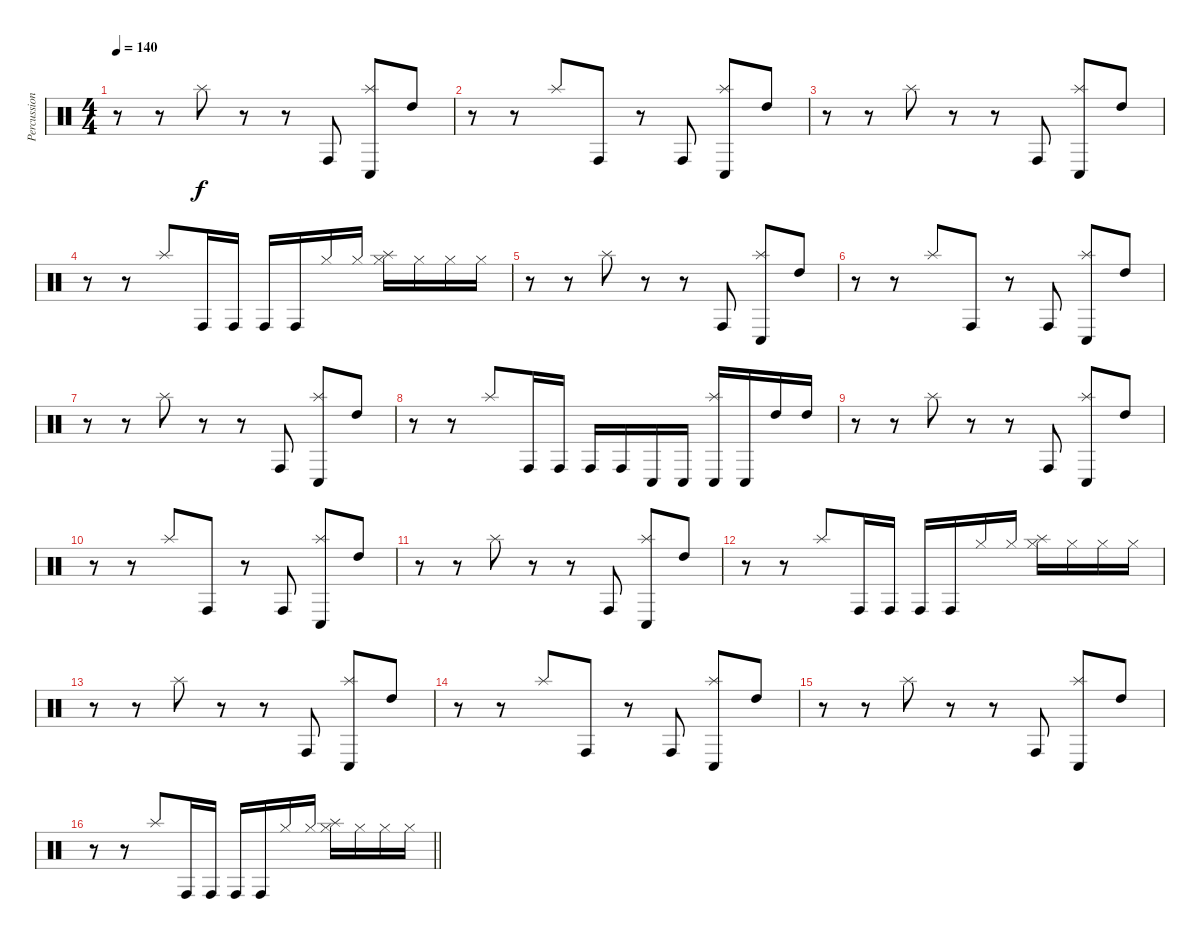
\track ("Percussion" "Percussion") {instrument percussion}
\staff {score}
\articulation defaults
\ts (4 4)
\tempo 140
\clef neutral
\ks c
r.8{dy f} r.8 "Splash (hit)".8 r.8 r.8 "Conga high (hit)".8 ("Conga low (hit)" "Splash (hit)").8 "High Tom (hit)".8 |
r.8 r.8 "Splash (hit)".8 "Conga high (hit)".8 r.8 "Conga high (hit)".8 ("Conga low (hit)" "Splash (hit)").8 "High Tom (hit)".8 |
r.8 r.8 "Splash (hit)".8 r.8 r.8 "Conga high (hit)".8 ("Conga low (hit)" "Splash (hit)").8 "High Tom (hit)".8 |
r.8 r.8 "Splash (hit)".8 "Conga high (hit)".16 "Conga high (hit)".16 "Conga high (hit)".16 "Conga high (hit)".16 "Hi-Hat (closed)".16 "Hi-Hat (closed)".16 ("Hi-Hat (closed)" "Splash (hit)").16 "Hi-Hat (closed)".16 "Hi-Hat (closed)".16 "Hi-Hat (closed)".16 |
r.8 r.8 "Splash (hit)".8 r.8 r.8 "Conga high (hit)".8 ("Conga low (hit)" "Splash (hit)").8 "High Tom (hit)".8 |
r.8 r.8 "Splash (hit)".8 "Conga high (hit)".8 r.8 "Conga high (hit)".8 ("Conga low (hit)" "Splash (hit)").8 "High Tom (hit)".8 |
r.8 r.8 "Splash (hit)".8 r.8 r.8 "Conga high (hit)".8 ("Conga low (hit)" "Splash (hit)").8 "High Tom (hit)".8 |
r.8 r.8 "Splash (hit)".8 "Conga high (hit)".16 "Conga high (hit)".16 "Conga high (hit)".16 "Conga high (hit)".16 "Conga low (hit)".16 "Conga low (hit)".16 ("Conga low (hit)" "Splash (hit)").16 "Conga low (hit)".16 "High Tom (hit)".16 "High Tom (hit)".16 |
r.8 r.8 "Splash (hit)".8 r.8 r.8 "Conga high (hit)".8 ("Conga low (hit)" "Splash (hit)").8 "High Tom (hit)".8 |
r.8 r.8 "Splash (hit)".8 "Conga high (hit)".8 r.8 "Conga high (hit)".8 ("Conga low (hit)" "Splash (hit)").8 "High Tom (hit)".8 |
r.8 r.8 "Splash (hit)".8 r.8 r.8 "Conga high (hit)".8 ("Conga low (hit)" "Splash (hit)").8 "High Tom (hit)".8 |
r.8 r.8 "Splash (hit)".8 "Conga high (hit)".16 "Conga high (hit)".16 "Conga high (hit)".16 "Conga high (hit)".16 "Hi-Hat (closed)".16 "Hi-Hat (closed)".16 ("Hi-Hat (closed)" "Splash (hit)").16 "Hi-Hat (closed)".16 "Hi-Hat (closed)".16 "Hi-Hat (closed)".16 |
r.8 r.8 "Splash (hit)".8 r.8 r.8 "Conga high (hit)".8 ("Conga low (hit)" "Splash (hit)").8 "High Tom (hit)".8 |
r.8 r.8 "Splash (hit)".8 "Conga high (hit)".8 r.8 "Conga high (hit)".8 ("Conga low (hit)" "Splash (hit)").8 "High Tom (hit)".8 |
r.8 r.8 "Splash (hit)".8 r.8 r.8 "Conga high (hit)".8 ("Conga low (hit)" "Splash (hit)").8 "High Tom (hit)".8 |
\barLineRight lightlight
r.8 r.8 "Splash (hit)".8 "Conga high (hit)".16 "Conga high (hit)".16 "Conga high (hit)".16 "Conga high (hit)".16 "Hi-Hat (closed)".16 "Hi-Hat (closed)".16 ("Hi-Hat (closed)" "Splash (hit)").16 "Hi-Hat (closed)".16 "Hi-Hat (closed)".16 "Hi-Hat (closed)".16
